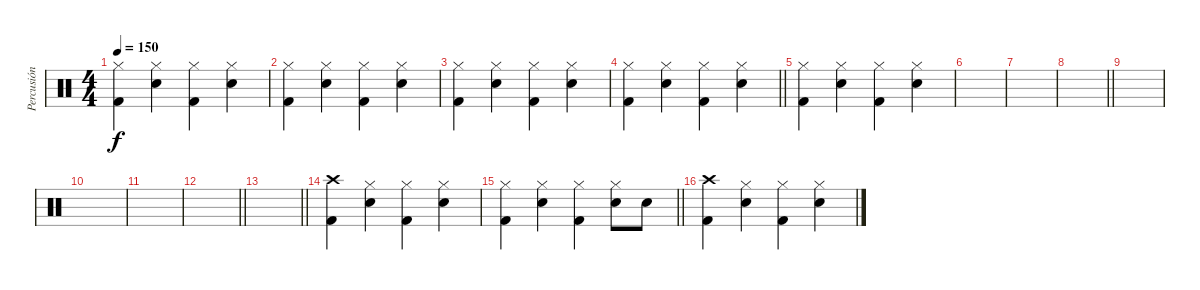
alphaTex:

\track ("Percusión" "Percusión") {instrument percussion}
\staff {score}
\articulation defaults
\ts (4 4)
\tempo 150
\clef neutral
\ks c
("Hi-Hat (closed)" "Kick (hit) 2").4{dy f} ("Hi-Hat (closed)" "Snare (hit) 2").4 ("Hi-Hat (closed)" "Kick (hit) 2").4 ("Hi-Hat (closed)" "Snare (hit) 2").4 |
("Hi-Hat (closed)" "Kick (hit) 2").4 ("Hi-Hat (closed)" "Snare (hit) 2").4 ("Hi-Hat (closed)" "Kick (hit) 2").4 ("Hi-Hat (closed)" "Snare (hit) 2").4 |
("Hi-Hat (closed)" "Kick (hit) 2").4 ("Hi-Hat (closed)" "Snare (hit) 2").4 ("Hi-Hat (closed)" "Kick (hit) 2").4 ("Hi-Hat (closed)" "Snare (hit) 2").4 |
\barLineRight lightlight
("Hi-Hat (closed)" "Kick (hit) 2").4 ("Hi-Hat (closed)" "Snare (hit) 2").4 ("Hi-Hat (closed)" "Kick (hit) 2").4 ("Hi-Hat (closed)" "Snare (hit) 2").4 |
("Hi-Hat (closed)" "Kick (hit) 2").4 ("Hi-Hat (closed)" "Snare (hit) 2").4 ("Hi-Hat (closed)" "Kick (hit) 2").4 ("Hi-Hat (closed)" "Snare (hit) 2").4 |
|
|
\barLineRight lightlight
|
|
|
|
\barLineRight lightlight
|
\barLineRight lightlight
|
("Crash high (hit)" "Kick (hit) 2").4 ("Hi-Hat (closed)" "Snare (hit) 2").4 ("Hi-Hat (closed)" "Kick (hit) 2").4 ("Hi-Hat (closed)" "Snare (hit) 2").4 |
\barLineRight lightlight
("Hi-Hat (closed)" "Kick (hit) 2").4 ("Hi-Hat (closed)" "Snare (hit) 2").4 ("Hi-Hat (closed)" "Kick (hit) 2").4 ("Hi-Hat (closed)" "Snare (hit) 2").8 "Snare (hit) 2".8 |
("Crash high (hit)" "Kick (hit) 2").4 ("Hi-Hat (closed)" "Snare (hit) 2").4 ("Hi-Hat (closed)" "Kick (hit) 2").4 ("Hi-Hat (closed)" "Snare (hit) 2").4
